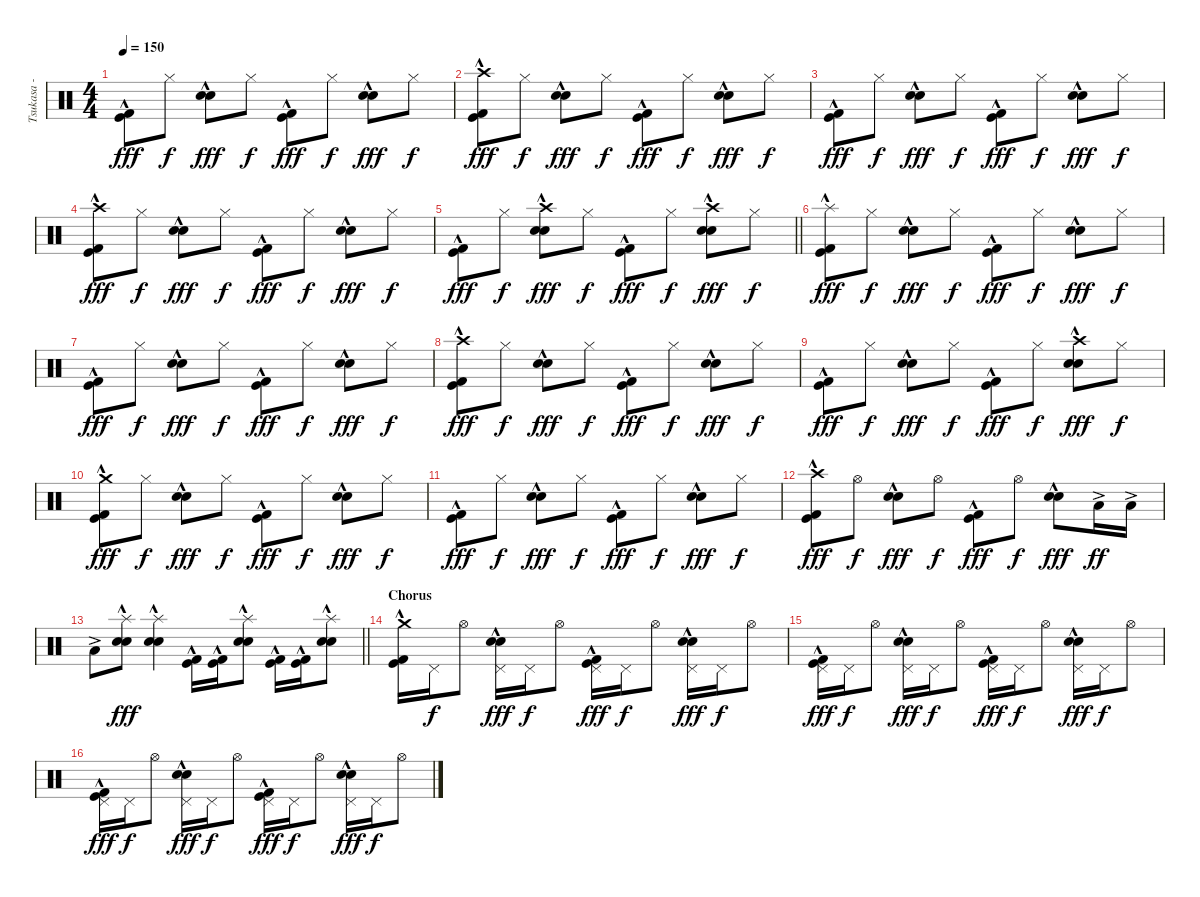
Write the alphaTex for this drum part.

\track ("Tsukasa - Drums" "Tsukasa - ") {instrument percussion}
\staff {score}
\articulation defaults
\ts (4 4)
\tempo 150
\clef neutral
\ks c
("Kick (hit)" "Kick (hit) 2"{hac}).8{dy fff} "Hi-Hat (closed)".8{dy f} ("Electric Snare (hit)"{hac} "Snare (hit) 2").8{dy fff} "Hi-Hat (closed)".8{dy f} ("Kick (hit)" "Kick (hit) 2"{hac}).8{dy fff} "Hi-Hat (closed)".8{dy f} ("Electric Snare (hit)"{hac} "Snare (hit) 2").8{dy fff} "Hi-Hat (closed)".8{dy f} |
("Crash high (hit)" "Kick (hit)" "Kick (hit) 2"{hac}).8{dy fff} "Hi-Hat (closed)".8{dy f} ("Electric Snare (hit)"{hac} "Snare (hit) 2").8{dy fff} "Hi-Hat (closed)".8{dy f} ("Kick (hit)" "Kick (hit) 2"{hac}).8{dy fff} "Hi-Hat (closed)".8{dy f} ("Electric Snare (hit)"{hac} "Snare (hit) 2").8{dy fff} "Hi-Hat (closed)".8{dy f} |
("Kick (hit)" "Kick (hit) 2"{hac}).8{dy fff} "Hi-Hat (closed)".8{dy f} ("Electric Snare (hit)"{hac} "Snare (hit) 2").8{dy fff} "Hi-Hat (closed)".8{dy f} ("Kick (hit)" "Kick (hit) 2"{hac}).8{dy fff} "Hi-Hat (closed)".8{dy f} ("Electric Snare (hit)"{hac} "Snare (hit) 2").8{dy fff} "Hi-Hat (closed)".8{dy f} |
("Crash high (hit)" "Kick (hit)" "Kick (hit) 2"{hac}).8{dy fff} "Hi-Hat (closed)".8{dy f} ("Electric Snare (hit)"{hac} "Snare (hit) 2").8{dy fff} "Hi-Hat (closed)".8{dy f} ("Kick (hit)" "Kick (hit) 2"{hac}).8{dy fff} "Hi-Hat (closed)".8{dy f} ("Electric Snare (hit)"{hac} "Snare (hit) 2").8{dy fff} "Hi-Hat (closed)".8{dy f} |
\barLineRight lightlight
("Kick (hit)" "Kick (hit) 2"{hac}).8{dy fff} "Hi-Hat (closed)".8{dy f} ("Crash high (hit)" "Electric Snare (hit)"{hac} "Snare (hit) 2").8{dy fff} "Hi-Hat (closed)".8{dy f} ("Kick (hit)" "Kick (hit) 2"{hac}).8{dy fff} "Hi-Hat (closed)".8{dy f} ("Crash high (hit)" "Electric Snare (hit)"{hac} "Snare (hit) 2").8{dy fff} "Hi-Hat (closed)".8{dy f} |
\section ("" "")
("Splash (hit)"{hac} "Kick (hit)" "Kick (hit) 2"{hac}).8{dy fff} "Hi-Hat (closed)".8{dy f} ("Electric Snare (hit)"{hac} "Snare (hit) 2").8{dy fff} "Hi-Hat (closed)".8{dy f} ("Kick (hit)" "Kick (hit) 2"{hac}).8{dy fff} "Hi-Hat (closed)".8{dy f} ("Electric Snare (hit)"{hac} "Snare (hit) 2").8{dy fff} "Hi-Hat (closed)".8{dy f} |
("Kick (hit)" "Kick (hit) 2"{hac}).8{dy fff} "Hi-Hat (closed)".8{dy f} ("Electric Snare (hit)"{hac} "Snare (hit) 2").8{dy fff} "Hi-Hat (closed)".8{dy f} ("Kick (hit)" "Kick (hit) 2"{hac}).8{dy fff} "Hi-Hat (closed)".8{dy f} ("Electric Snare (hit)"{hac} "Snare (hit) 2").8{dy fff} "Hi-Hat (closed)".8{dy f} |
("Crash high (hit)" "Kick (hit)" "Kick (hit) 2"{hac}).8{dy fff} "Hi-Hat (closed)".8{dy f} ("Electric Snare (hit)"{hac} "Snare (hit) 2").8{dy fff} "Hi-Hat (closed)".8{dy f} ("Kick (hit)" "Kick (hit) 2"{hac}).8{dy fff} "Hi-Hat (closed)".8{dy f} ("Electric Snare (hit)"{hac} "Snare (hit) 2").8{dy fff} "Hi-Hat (closed)".8{dy f} |
("Kick (hit)" "Kick (hit) 2"{hac}).8{dy fff} "Hi-Hat (closed)".8{dy f} ("Electric Snare (hit)"{hac} "Snare (hit) 2").8{dy fff} "Hi-Hat (closed)".8{dy f} ("Kick (hit)" "Kick (hit) 2"{hac}).8{dy fff} "Hi-Hat (closed)".8{dy f} ("Crash high (hit)" "Electric Snare (hit)"{hac} "Snare (hit) 2").8{dy fff} "Hi-Hat (closed)".8{dy f} |
("Crash medium (hit)" "Kick (hit)" "Kick (hit) 2"{hac}).8{dy fff} "Hi-Hat (closed)".8{dy f} ("Electric Snare (hit)"{hac} "Snare (hit) 2").8{dy fff} "Hi-Hat (closed)".8{dy f} ("Kick (hit)" "Kick (hit) 2"{hac}).8{dy fff} "Hi-Hat (closed)".8{dy f} ("Electric Snare (hit)"{hac} "Snare (hit) 2").8{dy fff} "Hi-Hat (closed)".8{dy f} |
("Kick (hit)" "Kick (hit) 2"{hac}).8{dy fff} "Hi-Hat (closed)".8{dy f} ("Electric Snare (hit)"{hac} "Snare (hit) 2").8{dy fff} "Hi-Hat (closed)".8{dy f} ("Kick (hit)" "Kick (hit) 2"{hac}).8{dy fff} "Hi-Hat (closed)".8{dy f} ("Electric Snare (hit)"{hac} "Snare (hit) 2").8{dy fff} "Hi-Hat (closed)".8{dy f} |
("Crash high (hit)" "Kick (hit)" "Kick (hit) 2"{hac}).8{dy fff} "Hi-Hat (open)".8{dy f} ("Electric Snare (hit)"{hac} "Snare (hit) 2").8{dy fff} "Hi-Hat (open)".8{dy f} ("Kick (hit)" "Kick (hit) 2"{hac}).8{dy fff} "Hi-Hat (open)".8{dy f} ("Electric Snare (hit)"{hac} "Snare (hit) 2").8{dy fff} "Low Tom (hit)"{ac}.16{dy ff} "Low Tom (hit)"{ac}.16 |
\barLineRight lightlight "Low Tom (hit)"{ac}.8
("Splash (hit)"{hac} "Electric Snare (hit)"{hac} "Snare (hit) 2").8{dy fff} ("Splash (hit)"{hac} "Electric Snare (hit)"{hac} "Snare (hit) 2").4 ("Kick (hit)"{hac} "Kick (hit) 2"{hac}).16 ("Kick (hit)"{hac} "Kick (hit) 2"{hac}).16 ("Splash (hit)"{hac} "Electric Snare (hit)"{hac} "Snare (hit) 2").8 ("Kick (hit)"{hac} "Kick (hit) 2"{hac}).16 ("Kick (hit)"{hac} "Kick (hit) 2"{hac}).16 ("Splash (hit)"{hac} "Electric Snare (hit)"{hac} "Snare (hit) 2").8 |
\section ("" "Chorus")
("Crash medium (hit)" "Kick (hit)"{hac} "Kick (hit) 2"{hac}).16 "Pedal Hi-Hat (hit)".16{dy f} "Hi-Hat (open)".8 ("Pedal Hi-Hat (hit)" "Electric Snare (hit)"{hac} "Snare (hit) 2").16{dy fff} "Pedal Hi-Hat (hit)".16{dy f} "Hi-Hat (open)".8 ("Pedal Hi-Hat (hit)" "Kick (hit)"{hac} "Kick (hit) 2"{hac}).16{dy fff} "Pedal Hi-Hat (hit)".16{dy f} "Hi-Hat (open)".8 ("Pedal Hi-Hat (hit)" "Electric Snare (hit)"{hac} "Snare (hit) 2").16{dy fff} "Pedal Hi-Hat (hit)".16{dy f} "Hi-Hat (open)".8 |
("Pedal Hi-Hat (hit)" "Kick (hit)"{hac} "Kick (hit) 2"{hac}).16{dy fff} "Pedal Hi-Hat (hit)".16{dy f} "Hi-Hat (open)".8 ("Pedal Hi-Hat (hit)" "Electric Snare (hit)"{hac} "Snare (hit) 2").16{dy fff} "Pedal Hi-Hat (hit)".16{dy f} "Hi-Hat (open)".8 ("Pedal Hi-Hat (hit)" "Kick (hit)"{hac} "Kick (hit) 2"{hac}).16{dy fff} "Pedal Hi-Hat (hit)".16{dy f} "Hi-Hat (open)".8 ("Pedal Hi-Hat (hit)" "Electric Snare (hit)"{hac} "Snare (hit) 2").16{dy fff} "Pedal Hi-Hat (hit)".16{dy f} "Hi-Hat (open)".8 |
("Pedal Hi-Hat (hit)" "Kick (hit)"{hac} "Kick (hit) 2"{hac}).16{dy fff} "Pedal Hi-Hat (hit)".16{dy f} "Hi-Hat (open)".8 ("Pedal Hi-Hat (hit)" "Electric Snare (hit)"{hac} "Snare (hit) 2").16{dy fff} "Pedal Hi-Hat (hit)".16{dy f} "Hi-Hat (open)".8 ("Pedal Hi-Hat (hit)" "Kick (hit)"{hac} "Kick (hit) 2"{hac}).16{dy fff} "Pedal Hi-Hat (hit)".16{dy f} "Hi-Hat (open)".8 ("Pedal Hi-Hat (hit)" "Electric Snare (hit)"{hac} "Snare (hit) 2").16{dy fff} "Pedal Hi-Hat (hit)".16{dy f} "Hi-Hat (open)".8
